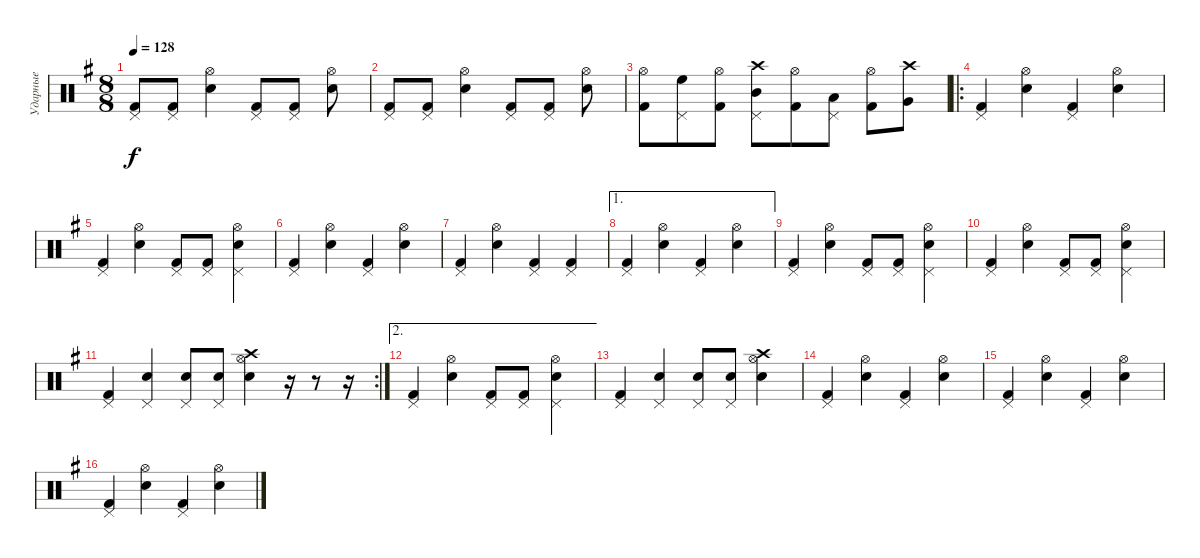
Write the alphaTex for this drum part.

\track ("Ударные" "Ударные") {instrument percussion}
\staff {score}
\articulation defaults
\ts (8 8)
\tempo 128
\clef neutral
\ks g
("Kick (hit) 2" "Pedal Hi-Hat (hit)").8{dy f} ("Kick (hit) 2" "Pedal Hi-Hat (hit)").8 ("Electric Snare (hit)" "Hi-Hat (open)").4 ("Kick (hit) 2" "Pedal Hi-Hat (hit)").8 ("Kick (hit) 2" "Pedal Hi-Hat (hit)").8 ("Electric Snare (hit)" "Hi-Hat (open)").8 |
("Kick (hit) 2" "Pedal Hi-Hat (hit)").8 ("Kick (hit) 2" "Pedal Hi-Hat (hit)").8 ("Electric Snare (hit)" "Hi-Hat (open)").4 ("Kick (hit) 2" "Pedal Hi-Hat (hit)").8 ("Kick (hit) 2" "Pedal Hi-Hat (hit)").8 ("Electric Snare (hit)" "Hi-Hat (open)").8 |
("Kick (hit) 2" "Hi-Hat (open)").8 ("High Floor Tom (hit)" "Pedal Hi-Hat (hit)").8 ("Kick (hit) 2" "Hi-Hat (open)").8 ("Mid Tom (hit)" "Pedal Hi-Hat (hit)" "Crash high (hit)").8 ("Kick (hit) 2" "Hi-Hat (open)").8 ("Low Tom (hit)" "Pedal Hi-Hat (hit)").8 ("Kick (hit) 2" "Hi-Hat (open)").8 ("Very Low Tom (hit)" "Crash high (hit)").8 |
\ro
("Kick (hit) 2" "Pedal Hi-Hat (hit)").4 ("Electric Snare (hit)" "Hi-Hat (open)").4 ("Kick (hit) 2" "Pedal Hi-Hat (hit)").4 ("Electric Snare (hit)" "Hi-Hat (open)").4 |
("Kick (hit) 2" "Pedal Hi-Hat (hit)").4 ("Electric Snare (hit)" "Hi-Hat (open)").4 ("Kick (hit) 2" "Pedal Hi-Hat (hit)").8 ("Kick (hit) 2" "Pedal Hi-Hat (hit)").8 ("Pedal Hi-Hat (hit)" "Hi-Hat (open)" "Electric Snare (hit)").4 |
("Kick (hit) 2" "Pedal Hi-Hat (hit)").4 ("Electric Snare (hit)" "Hi-Hat (open)").4 ("Kick (hit) 2" "Pedal Hi-Hat (hit)").4 ("Electric Snare (hit)" "Hi-Hat (open)").4 |
("Kick (hit) 2" "Pedal Hi-Hat (hit)").4 ("Electric Snare (hit)" "Hi-Hat (open)").4 ("Kick (hit) 2" "Pedal Hi-Hat (hit)").4 ("Kick (hit) 2" "Pedal Hi-Hat (hit)").4 |
\ae 1
("Kick (hit) 2" "Pedal Hi-Hat (hit)").4 ("Electric Snare (hit)" "Hi-Hat (open)").4 ("Kick (hit) 2" "Pedal Hi-Hat (hit)").4 ("Electric Snare (hit)" "Hi-Hat (open)").4 |
("Kick (hit) 2" "Pedal Hi-Hat (hit)").4 ("Electric Snare (hit)" "Hi-Hat (open)").4 ("Kick (hit) 2" "Pedal Hi-Hat (hit)").8 ("Kick (hit) 2" "Pedal Hi-Hat (hit)").8 ("Pedal Hi-Hat (hit)" "Hi-Hat (open)" "Electric Snare (hit)").4 |
("Kick (hit) 2" "Pedal Hi-Hat (hit)").4 ("Electric Snare (hit)" "Hi-Hat (open)").4 ("Kick (hit) 2" "Pedal Hi-Hat (hit)").8 ("Kick (hit) 2" "Pedal Hi-Hat (hit)").8 ("Pedal Hi-Hat (hit)" "Hi-Hat (open)" "Electric Snare (hit)").4 |
\rc 2
("Kick (hit) 2" "Pedal Hi-Hat (hit)").4 ("Electric Snare (hit)" "Pedal Hi-Hat (hit)").4 ("Electric Snare (hit)" "Pedal Hi-Hat (hit)").8 ("Electric Snare (hit)" "Pedal Hi-Hat (hit)").8 ("Electric Snare (hit)" "Hi-Hat (open)" "Crash high (hit)").4 r.16 r.8 r.16 |
\ae 2
("Kick (hit) 2" "Pedal Hi-Hat (hit)").4 ("Electric Snare (hit)" "Hi-Hat (open)").4 ("Kick (hit) 2" "Pedal Hi-Hat (hit)").8 ("Kick (hit) 2" "Pedal Hi-Hat (hit)").8 ("Pedal Hi-Hat (hit)" "Hi-Hat (open)" "Electric Snare (hit)").4 |
("Kick (hit) 2" "Pedal Hi-Hat (hit)").4 ("Electric Snare (hit)" "Pedal Hi-Hat (hit)").4 ("Electric Snare (hit)" "Pedal Hi-Hat (hit)").8 ("Electric Snare (hit)" "Pedal Hi-Hat (hit)").8 ("Electric Snare (hit)" "Hi-Hat (open)" "Crash high (hit)").4 |
("Kick (hit) 2" "Pedal Hi-Hat (hit)").4 ("Electric Snare (hit)" "Hi-Hat (open)").4 ("Kick (hit) 2" "Pedal Hi-Hat (hit)").4 ("Electric Snare (hit)" "Hi-Hat (open)").4 |
("Kick (hit) 2" "Pedal Hi-Hat (hit)").4 ("Electric Snare (hit)" "Hi-Hat (open)").4 ("Kick (hit) 2" "Pedal Hi-Hat (hit)").4 ("Electric Snare (hit)" "Hi-Hat (open)").4 |
("Kick (hit) 2" "Pedal Hi-Hat (hit)").4 ("Electric Snare (hit)" "Hi-Hat (open)").4 ("Kick (hit) 2" "Pedal Hi-Hat (hit)").4 ("Electric Snare (hit)" "Hi-Hat (open)").4
